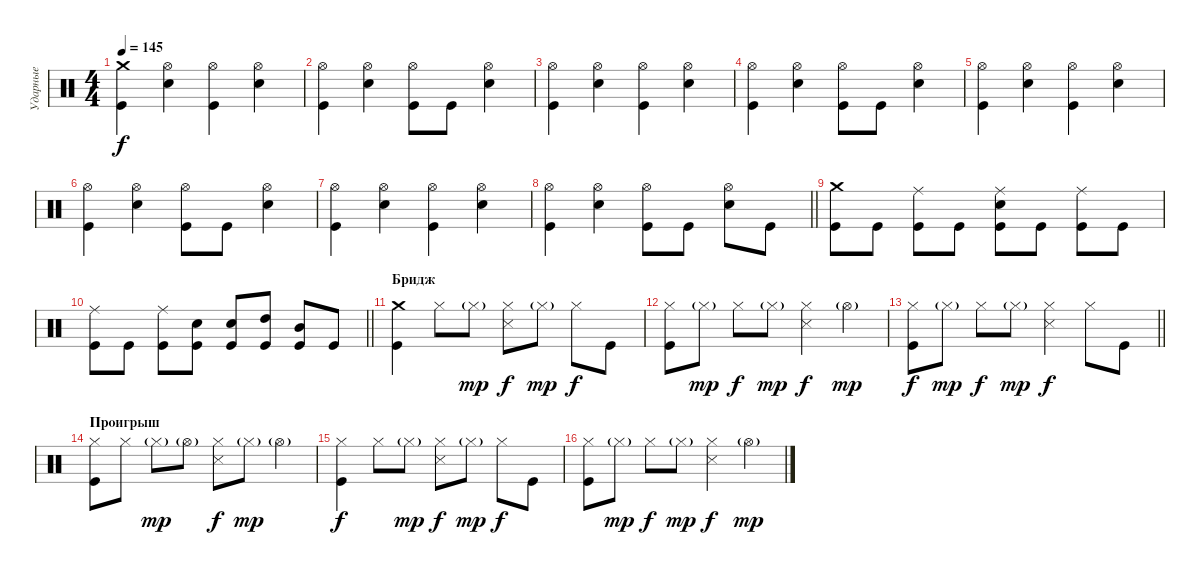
\track ("Ударные" "Ударные") {instrument percussion}
\staff {score}
\articulation defaults
\ts (4 4)
\tempo 145
\clef neutral
\ks c
("Kick (hit)" "Crash medium (hit)").4{dy f} ("Snare (hit) 2" "Hi-Hat (open)").4 ("Kick (hit)" "Hi-Hat (open)").4 ("Snare (hit) 2" "Hi-Hat (open)").4 |
("Kick (hit)" "Hi-Hat (open)").4 ("Snare (hit) 2" "Hi-Hat (open)").4 ("Kick (hit)" "Hi-Hat (open)").8 "Kick (hit)".8 ("Snare (hit) 2" "Hi-Hat (open)").4 |
("Kick (hit)" "Hi-Hat (open)").4 ("Snare (hit) 2" "Hi-Hat (open)").4 ("Kick (hit)" "Hi-Hat (open)").4 ("Snare (hit) 2" "Hi-Hat (open)").4 |
("Kick (hit)" "Hi-Hat (open)").4 ("Snare (hit) 2" "Hi-Hat (open)").4 ("Kick (hit)" "Hi-Hat (open)").8 "Kick (hit)".8 ("Snare (hit) 2" "Hi-Hat (open)").4 |
("Kick (hit)" "Hi-Hat (open)").4 ("Snare (hit) 2" "Hi-Hat (open)").4 ("Kick (hit)" "Hi-Hat (open)").4 ("Snare (hit) 2" "Hi-Hat (open)").4 |
("Kick (hit)" "Hi-Hat (open)").4 ("Snare (hit) 2" "Hi-Hat (open)").4 ("Kick (hit)" "Hi-Hat (open)").8 "Kick (hit)".8 ("Snare (hit) 2" "Hi-Hat (open)").4 |
("Kick (hit)" "Hi-Hat (open)").4 ("Snare (hit) 2" "Hi-Hat (open)").4 ("Kick (hit)" "Hi-Hat (open)").4 ("Snare (hit) 2" "Hi-Hat (open)").4 |
\barLineRight lightlight
("Kick (hit)" "Hi-Hat (open)").4 ("Snare (hit) 2" "Hi-Hat (open)").4 ("Kick (hit)" "Hi-Hat (open)").8 "Kick (hit)".8 ("Snare (hit) 2" "Hi-Hat (open)").8 "Kick (hit)".8 |
("Kick (hit)" "Crash medium (hit)").8 "Kick (hit)".8 ("Kick (hit)" "Ride (middle)").8 "Kick (hit)".8 ("Kick (hit)" "Snare (hit) 2" "Ride (middle)").8 "Kick (hit)".8 ("Kick (hit)" "Ride (middle)").8 "Kick (hit)".8 |
\barLineRight lightlight
("Kick (hit)" "Ride (middle)").8 "Kick (hit)".8 ("Kick (hit)" "Ride (middle)").8 ("Kick (hit)" "Snare (hit) 2").8 ("Kick (hit)" "Snare (hit) 2").8 ("Kick (hit)" "High Tom (hit)").8 ("Kick (hit)" "Mid Tom (hit)").8 "Kick (hit)".8 |
\section ("" "Бридж")
("Kick (hit)" "Crash medium (hit)").4 "Hi-Hat (closed)".8 "Hi-Hat (closed)"{g}.8{dy mp} ("Metronome (hit)" "Hi-Hat (closed)").8{dy f} "Hi-Hat (closed)"{g}.8{dy mp} "Hi-Hat (closed)".8{dy f} "Kick (hit)".8 |
("Kick (hit)" "Hi-Hat (closed)").8 "Hi-Hat (closed)"{g}.8{dy mp} "Hi-Hat (closed)".8{dy f} "Hi-Hat (closed)"{g}.8{dy mp} ("Metronome (hit)" "Hi-Hat (closed)").4{dy f} "Hi-Hat (open)"{g}.4{dy mp} |
\barLineRight lightlight
("Kick (hit)" "Hi-Hat (closed)").8{dy f} "Hi-Hat (closed)"{g}.8{dy mp} "Hi-Hat (closed)".8{dy f} "Hi-Hat (closed)"{g}.8{dy mp} ("Metronome (hit)" "Hi-Hat (closed)").4{dy f} "Hi-Hat (closed)".8 "Kick (hit)".8 |
\section ("" "Проигрыш")
("Kick (hit)" "Hi-Hat (closed)").8 "Hi-Hat (closed)".8 "Hi-Hat (closed)"{g}.8{dy mp} "Hi-Hat (open)"{g}.8 ("Metronome (hit)" "Hi-Hat (closed)").8{dy f} "Hi-Hat (closed)"{g}.8{dy mp} "Hi-Hat (open)"{g}.4 |
("Kick (hit)" "Hi-Hat (closed)").4{dy f} "Hi-Hat (closed)".8 "Hi-Hat (closed)"{g}.8{dy mp} ("Metronome (hit)" "Hi-Hat (closed)").8{dy f} "Hi-Hat (closed)"{g}.8{dy mp} "Hi-Hat (closed)".8{dy f} "Kick (hit)".8 |
("Kick (hit)" "Hi-Hat (closed)").8 "Hi-Hat (closed)"{g}.8{dy mp} "Hi-Hat (closed)".8{dy f} "Hi-Hat (closed)"{g}.8{dy mp} ("Metronome (hit)" "Hi-Hat (closed)").4{dy f} "Hi-Hat (open)"{g}.4{dy mp}
